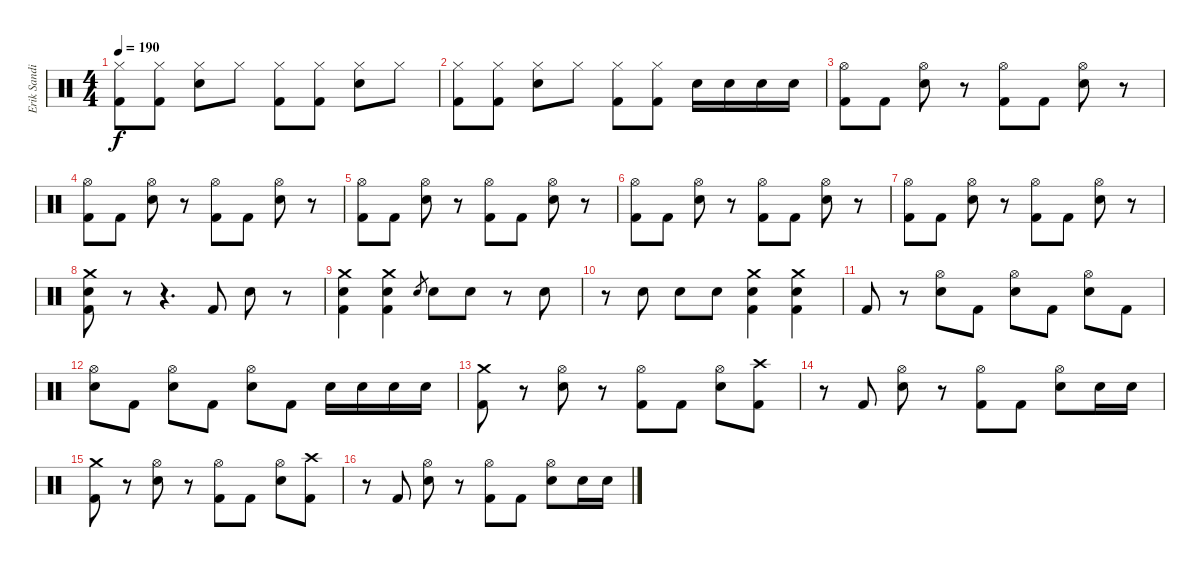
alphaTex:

\track ("Erik Sandin" "Erik Sandi") {instrument percussion}
\staff {score}
\articulation defaults
\ts (4 4)
\tempo 190
\clef neutral
\ks c
("Hi-Hat (closed)" "Kick (hit) 2").8{dy f} ("Hi-Hat (closed)" "Kick (hit) 2").8 ("Hi-Hat (closed)" "Snare (hit) 2").8 "Hi-Hat (closed)".8 ("Hi-Hat (closed)" "Kick (hit) 2").8 ("Hi-Hat (closed)" "Kick (hit) 2").8 ("Hi-Hat (closed)" "Snare (hit) 2").8 "Hi-Hat (closed)".8 |
("Hi-Hat (closed)" "Kick (hit) 2").8 ("Hi-Hat (closed)" "Kick (hit) 2").8 ("Hi-Hat (closed)" "Snare (hit) 2").8 "Hi-Hat (closed)".8 ("Hi-Hat (closed)" "Kick (hit) 2").8 ("Hi-Hat (closed)" "Kick (hit) 2").8 "Snare (hit) 2".16 "Snare (hit) 2".16 "Snare (hit) 2".16 "Snare (hit) 2".16 |
("Hi-Hat (open)" "Kick (hit) 2").8 "Kick (hit) 2".8 ("Hi-Hat (open)" "Snare (hit) 2").8 r.8 ("Hi-Hat (open)" "Kick (hit) 2").8 "Kick (hit) 2".8 ("Hi-Hat (open)" "Snare (hit) 2").8 r.8 |
("Hi-Hat (open)" "Kick (hit) 2").8 "Kick (hit) 2".8 ("Hi-Hat (open)" "Snare (hit) 2").8 r.8 ("Hi-Hat (open)" "Kick (hit) 2").8 "Kick (hit) 2".8 ("Hi-Hat (open)" "Snare (hit) 2").8 r.8 |
("Hi-Hat (open)" "Kick (hit) 2").8 "Kick (hit) 2".8 ("Hi-Hat (open)" "Snare (hit) 2").8 r.8 ("Hi-Hat (open)" "Kick (hit) 2").8 "Kick (hit) 2".8 ("Hi-Hat (open)" "Snare (hit) 2").8 r.8 |
("Hi-Hat (open)" "Kick (hit) 2").8 "Kick (hit) 2".8 ("Hi-Hat (open)" "Snare (hit) 2").8 r.8 ("Hi-Hat (open)" "Kick (hit) 2").8 "Kick (hit) 2".8 ("Hi-Hat (open)" "Snare (hit) 2").8 r.8 |
("Hi-Hat (open)" "Kick (hit) 2").8 "Kick (hit) 2".8 ("Hi-Hat (open)" "Snare (hit) 2").8 r.8 ("Hi-Hat (open)" "Kick (hit) 2").8 "Kick (hit) 2".8 ("Hi-Hat (open)" "Snare (hit) 2").8 r.8 |
("Crash medium (hit)" "Snare (hit) 2" "Kick (hit) 2").8 r.8 r.4{d} "Kick (hit) 2".8 "Snare (hit) 2".8 r.8 |
("Crash medium (hit)" "Snare (hit) 2" "Kick (hit) 2").4 ("Crash medium (hit)" "Snare (hit) 2" "Kick (hit) 2").4 "Snare (hit) 2".8{gr} "Snare (hit) 2".8 "Snare (hit) 2".8 r.8 "Snare (hit) 2".8 |
r.8 "Snare (hit) 2".8 "Snare (hit) 2".8 "Snare (hit) 2".8 ("Crash medium (hit)" "Snare (hit) 2" "Kick (hit) 2").4 ("Crash medium (hit)" "Snare (hit) 2" "Kick (hit) 2").4 |
"Kick (hit) 2".8 r.8 ("Hi-Hat (open)" "Snare (hit) 2").8 "Kick (hit) 2".8 ("Hi-Hat (open)" "Snare (hit) 2").8 "Kick (hit) 2".8 ("Hi-Hat (open)" "Snare (hit) 2").8 "Kick (hit) 2".8 |
("Hi-Hat (open)" "Snare (hit) 2").8 "Kick (hit) 2".8 ("Hi-Hat (open)" "Snare (hit) 2").8 "Kick (hit) 2".8 ("Hi-Hat (open)" "Snare (hit) 2").8 "Kick (hit) 2".8 "Snare (hit) 2".16 "Snare (hit) 2".16 "Snare (hit) 2".16 "Snare (hit) 2".16 |
("Crash medium (hit)" "Kick (hit) 2").8 r.8 ("Hi-Hat (open)" "Snare (hit) 2").8 r.8 ("Hi-Hat (open)" "Kick (hit) 2").8 "Kick (hit) 2".8 ("Hi-Hat (open)" "Snare (hit) 2").8 ("Crash high (hit)" "Kick (hit) 2").8 |
r.8 "Kick (hit) 2".8 ("Hi-Hat (open)" "Snare (hit) 2").8 r.8 ("Hi-Hat (open)" "Kick (hit) 2").8 "Kick (hit) 2".8 ("Hi-Hat (open)" "Snare (hit) 2").8 "Snare (hit) 2".16 "Snare (hit) 2".16 |
("Crash medium (hit)" "Kick (hit) 2").8 r.8 ("Hi-Hat (open)" "Snare (hit) 2").8 r.8 ("Hi-Hat (open)" "Kick (hit) 2").8 "Kick (hit) 2".8 ("Hi-Hat (open)" "Snare (hit) 2").8 ("Crash high (hit)" "Kick (hit) 2").8 |
r.8 "Kick (hit) 2".8 ("Hi-Hat (open)" "Snare (hit) 2").8 r.8 ("Hi-Hat (open)" "Kick (hit) 2").8 "Kick (hit) 2".8 ("Hi-Hat (open)" "Snare (hit) 2").8 "Snare (hit) 2".16 "Snare (hit) 2".16
